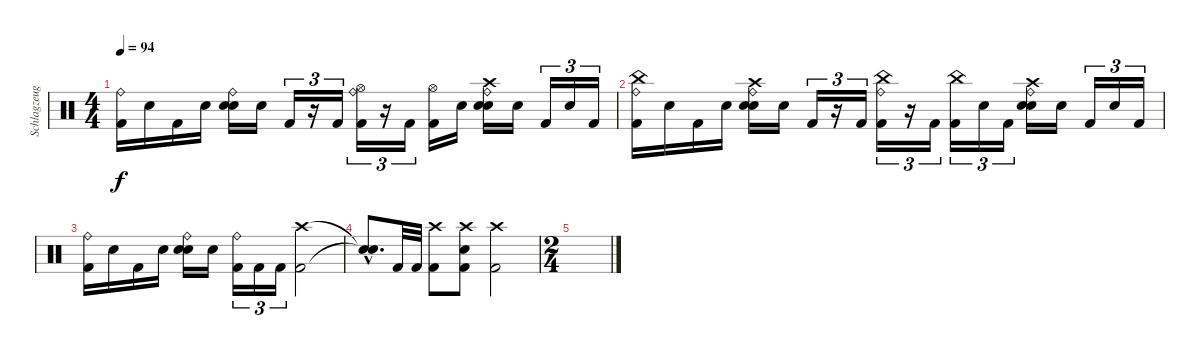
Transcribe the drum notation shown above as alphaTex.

\track ("Schlagzeug" "Schlagzeug") {instrument percussion}
\staff {score}
\articulation defaults
\ts (4 4)
\tempo 94
\clef neutral
\ks c
("Ride (bell)" "Kick (hit) 2").16{dy f} "Snare (hit)"{x}.16 "Kick (hit) 2".16 "Snare (hit)"{x}.16 ("Ride (bell)" "Electric Snare (hit)" "Snare (hit)"{x}).16 "Snare (hit)"{x}.16 "Kick (hit) 2".16{tu (3 2)} r.16{tu (3 2)} "Kick (hit) 2".16{tu (3 2)} ("Hi-Hat (open)" "Ride (bell)" "Kick (hit) 2").16{tu (3 2)} r.16{tu (3 2)} "Kick (hit) 2".16{tu (3 2)} ("Hi-Hat (open)" "Kick (hit) 2").16 "Snare (hit)"{x}.16 ("Crash high (hit)" "Ride (bell)" "Electric Snare (hit)" "Snare (hit)"{x}).16 "Snare (hit)"{x}.16 "Kick (hit) 2".16{tu (3 2)} "Snare (hit)"{x}.16{tu (3 2)} "Kick (hit) 2".16{tu (3 2)} |
("China (hit)" "Ride (bell)" "Kick (hit) 2").16 "Snare (hit)"{x}.16 "Kick (hit) 2".16 "Snare (hit)"{x}.16 ("Crash high (hit)" "Ride (bell)" "Electric Snare (hit)" "Snare (hit)"{x}).16 "Snare (hit)"{x}.16 "Kick (hit) 2".16{tu (3 2)} r.16{tu (3 2)} "Kick (hit) 2".16{tu (3 2)} ("China (hit)" "Ride (bell)" "Kick (hit) 2").16{tu (3 2)} r.16{tu (3 2)} "Kick (hit) 2".16{tu (3 2)} ("China (hit)" "Kick (hit) 2").16{tu (3 2)} "Snare (hit)"{x}.16{tu (3 2)} "Kick (hit) 2".16{tu (3 2)} ("Crash high (hit)" "Ride (bell)" "Electric Snare (hit)" "Snare (hit)"{x}).16 "Snare (hit)"{x}.16 "Kick (hit) 2".16{tu (3 2)} "Snare (hit)"{x}.16{tu (3 2)} "Kick (hit) 2".16{tu (3 2)} |
("Ride (bell)" "Kick (hit) 2").16 "Snare (hit)"{x}.16 "Kick (hit) 2".16 "Snare (hit)"{x}.16 ("Ride (bell)" "Electric Snare (hit)" "Snare (hit)"{x}).16 "Snare (hit)"{x}.16 ("Ride (bell)" "Kick (hit) 2").16{tu (3 2)} "Kick (hit) 2".16{tu (3 2)} "Kick (hit) 2".16{tu (3 2)} ("Crash high (hit)" "Kick (hit) 2").2 |
("Snare (hit)"{hac t} "Snare (hit)"{hac t}).8{d} "Kick (hit) 2".32 "Kick (hit) 2".32 ("Crash high (hit)" "Kick (hit) 2").8 ("Crash high (hit)" "Electric Snare (hit)" "Kick (hit) 2").8 ("Crash high (hit)" "Kick (hit) 2").2 |
\ts (2 4)
